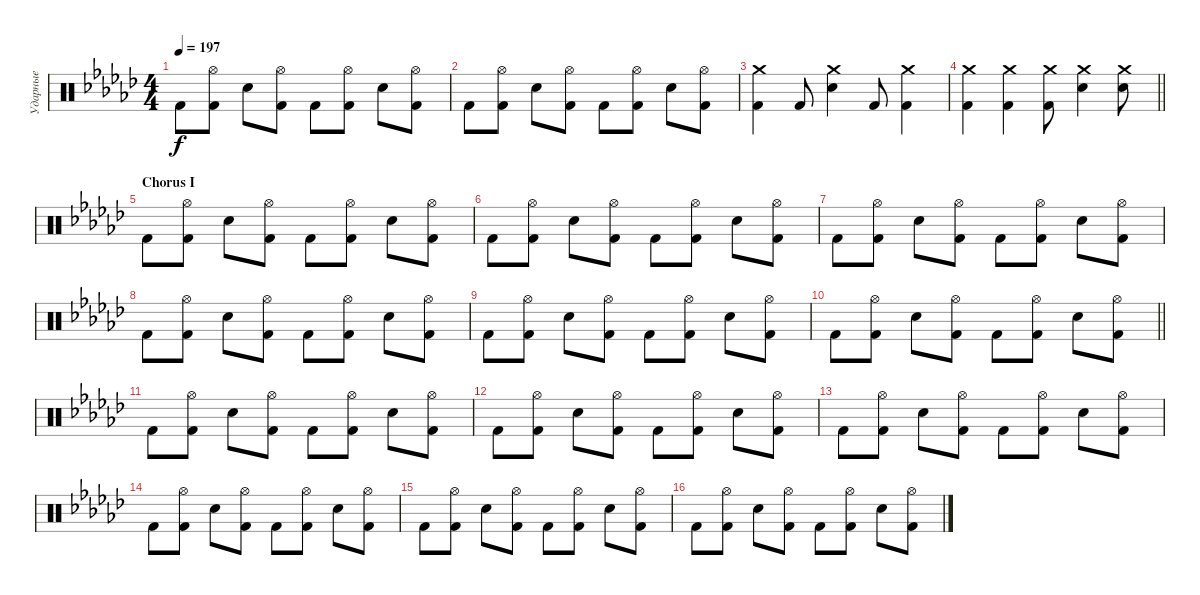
\track ("Ударные" "Ударные") {instrument percussion}
\staff {score}
\articulation defaults
\ts (4 4)
\tempo 197
\clef neutral
\ks gb "Kick (hit) 2".8{dy f}
("Hi-Hat (open)" "Kick (hit) 2").8 "Snare (hit) 2".8 ("Hi-Hat (open)" "Kick (hit) 2").8 "Kick (hit) 2".8 ("Hi-Hat (open)" "Kick (hit) 2").8 "Snare (hit) 2".8 ("Hi-Hat (open)" "Kick (hit) 2").8 |
"Kick (hit) 2".8 ("Hi-Hat (open)" "Kick (hit) 2").8 "Snare (hit) 2".8 ("Hi-Hat (open)" "Kick (hit) 2").8 "Kick (hit) 2".8 ("Hi-Hat (open)" "Kick (hit) 2").8 "Snare (hit) 2".8 ("Hi-Hat (open)" "Kick (hit) 2").8 |
("Crash medium (hit)" "Kick (hit) 2").4 "Kick (hit) 2".8 ("Crash medium (hit)" "Snare (hit) 2").4 "Kick (hit) 2".8 ("Crash medium (hit)" "Kick (hit) 2").4 |
\barLineRight lightlight
("Crash medium (hit)" "Kick (hit) 2").4 ("Crash medium (hit)" "Kick (hit) 2").4 ("Crash medium (hit)" "Kick (hit) 2").8 ("Crash medium (hit)" "Snare (hit) 2").4 ("Crash medium (hit)" "Snare (hit) 2").8 |
\section ("" "Chorus I")
"Kick (hit) 2".8 ("Hi-Hat (open)" "Kick (hit) 2").8 "Snare (hit) 2".8 ("Hi-Hat (open)" "Kick (hit) 2").8 "Kick (hit) 2".8 ("Hi-Hat (open)" "Kick (hit) 2").8 "Snare (hit) 2".8 ("Hi-Hat (open)" "Kick (hit) 2").8 |
"Kick (hit) 2".8 ("Hi-Hat (open)" "Kick (hit) 2").8 "Snare (hit) 2".8 ("Hi-Hat (open)" "Kick (hit) 2").8 "Kick (hit) 2".8 ("Hi-Hat (open)" "Kick (hit) 2").8 "Snare (hit) 2".8 ("Hi-Hat (open)" "Kick (hit) 2").8 |
"Kick (hit) 2".8 ("Hi-Hat (open)" "Kick (hit) 2").8 "Snare (hit) 2".8 ("Hi-Hat (open)" "Kick (hit) 2").8 "Kick (hit) 2".8 ("Hi-Hat (open)" "Kick (hit) 2").8 "Snare (hit) 2".8 ("Hi-Hat (open)" "Kick (hit) 2").8 |
"Kick (hit) 2".8 ("Hi-Hat (open)" "Kick (hit) 2").8 "Snare (hit) 2".8 ("Hi-Hat (open)" "Kick (hit) 2").8 "Kick (hit) 2".8 ("Hi-Hat (open)" "Kick (hit) 2").8 "Snare (hit) 2".8 ("Hi-Hat (open)" "Kick (hit) 2").8 |
"Kick (hit) 2".8 ("Hi-Hat (open)" "Kick (hit) 2").8 "Snare (hit) 2".8 ("Hi-Hat (open)" "Kick (hit) 2").8 "Kick (hit) 2".8 ("Hi-Hat (open)" "Kick (hit) 2").8 "Snare (hit) 2".8 ("Hi-Hat (open)" "Kick (hit) 2").8 |
\barLineRight lightlight "Kick (hit) 2".8
("Hi-Hat (open)" "Kick (hit) 2").8 "Snare (hit) 2".8 ("Hi-Hat (open)" "Kick (hit) 2").8 "Kick (hit) 2".8 ("Hi-Hat (open)" "Kick (hit) 2").8 "Snare (hit) 2".8 ("Hi-Hat (open)" "Kick (hit) 2").8 |
"Kick (hit) 2".8 ("Hi-Hat (open)" "Kick (hit) 2").8 "Snare (hit) 2".8 ("Hi-Hat (open)" "Kick (hit) 2").8 "Kick (hit) 2".8 ("Hi-Hat (open)" "Kick (hit) 2").8 "Snare (hit) 2".8 ("Hi-Hat (open)" "Kick (hit) 2").8 |
"Kick (hit) 2".8 ("Hi-Hat (open)" "Kick (hit) 2").8 "Snare (hit) 2".8 ("Hi-Hat (open)" "Kick (hit) 2").8 "Kick (hit) 2".8 ("Hi-Hat (open)" "Kick (hit) 2").8 "Snare (hit) 2".8 ("Hi-Hat (open)" "Kick (hit) 2").8 |
"Kick (hit) 2".8 ("Hi-Hat (open)" "Kick (hit) 2").8 "Snare (hit) 2".8 ("Hi-Hat (open)" "Kick (hit) 2").8 "Kick (hit) 2".8 ("Hi-Hat (open)" "Kick (hit) 2").8 "Snare (hit) 2".8 ("Hi-Hat (open)" "Kick (hit) 2").8 |
"Kick (hit) 2".8 ("Hi-Hat (open)" "Kick (hit) 2").8 "Snare (hit) 2".8 ("Hi-Hat (open)" "Kick (hit) 2").8 "Kick (hit) 2".8 ("Hi-Hat (open)" "Kick (hit) 2").8 "Snare (hit) 2".8 ("Hi-Hat (open)" "Kick (hit) 2").8 |
"Kick (hit) 2".8 ("Hi-Hat (open)" "Kick (hit) 2").8 "Snare (hit) 2".8 ("Hi-Hat (open)" "Kick (hit) 2").8 "Kick (hit) 2".8 ("Hi-Hat (open)" "Kick (hit) 2").8 "Snare (hit) 2".8 ("Hi-Hat (open)" "Kick (hit) 2").8 |
"Kick (hit) 2".8 ("Hi-Hat (open)" "Kick (hit) 2").8 "Snare (hit) 2".8 ("Hi-Hat (open)" "Kick (hit) 2").8 "Kick (hit) 2".8 ("Hi-Hat (open)" "Kick (hit) 2").8 "Snare (hit) 2".8 ("Hi-Hat (open)" "Kick (hit) 2").8
